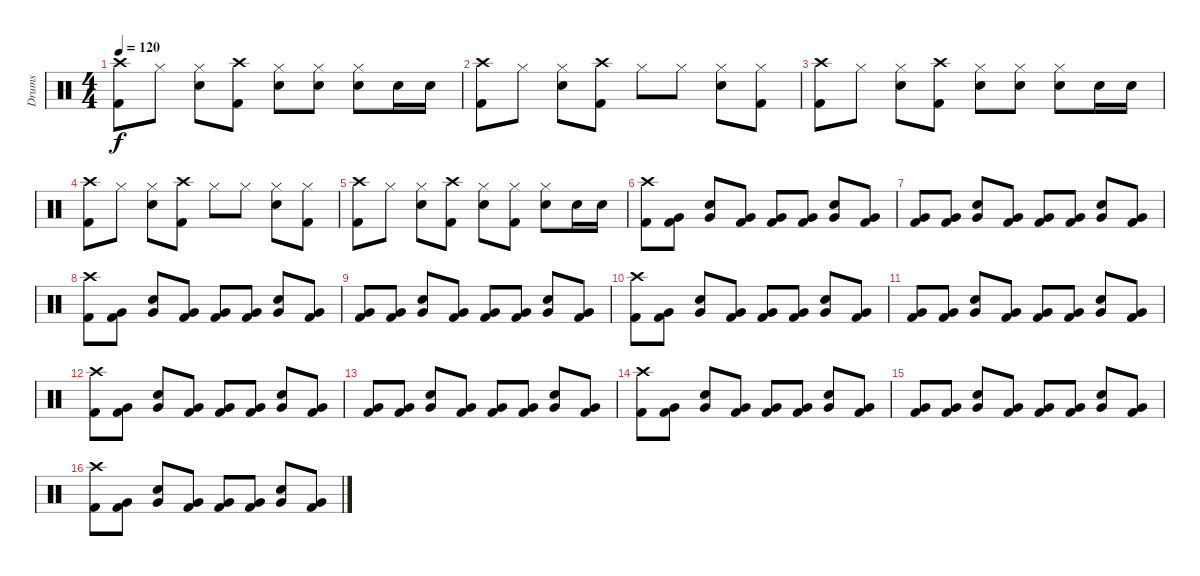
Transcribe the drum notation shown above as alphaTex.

\track ("Drums" "Drums") {instrument percussion}
\staff {score}
\articulation defaults
\ts (4 4)
\tempo 120
\clef neutral
\ks c
("Crash high (hit)" "Kick (hit) 2").8{dy f} "Hi-Hat (closed)".8 ("Hi-Hat (closed)" "Snare (hit) 2").8 ("Crash high (hit)" "Kick (hit) 2").8 ("Hi-Hat (closed)" "Snare (hit) 2").8 ("Hi-Hat (closed)" "Snare (hit) 2").8 ("Hi-Hat (closed)" "Snare (hit) 2").8 "Snare (hit) 2".16 "Snare (hit) 2".16 |
("Crash high (hit)" "Kick (hit) 2").8 "Hi-Hat (closed)".8 ("Hi-Hat (closed)" "Snare (hit) 2").8 ("Crash high (hit)" "Kick (hit) 2").8 "Hi-Hat (closed)".8 "Hi-Hat (closed)".8 ("Hi-Hat (closed)" "Snare (hit) 2").8 ("Hi-Hat (closed)" "Kick (hit) 2").8 |
("Crash high (hit)" "Kick (hit) 2").8 "Hi-Hat (closed)".8 ("Hi-Hat (closed)" "Snare (hit) 2").8 ("Crash high (hit)" "Kick (hit) 2").8 ("Hi-Hat (closed)" "Snare (hit) 2").8 ("Hi-Hat (closed)" "Snare (hit) 2").8 ("Hi-Hat (closed)" "Snare (hit) 2").8 "Snare (hit) 2".16 "Snare (hit) 2".16 |
("Crash high (hit)" "Kick (hit) 2").8 "Hi-Hat (closed)".8 ("Hi-Hat (closed)" "Snare (hit) 2").8 ("Crash high (hit)" "Kick (hit) 2").8 "Hi-Hat (closed)".8 "Hi-Hat (closed)".8 ("Hi-Hat (closed)" "Snare (hit) 2").8 ("Hi-Hat (closed)" "Kick (hit) 2").8 |
("Crash high (hit)" "Kick (hit) 2").8 "Hi-Hat (closed)".8 ("Hi-Hat (closed)" "Snare (hit) 2").8 ("Crash high (hit)" "Kick (hit) 2").8 ("Hi-Hat (closed)" "Snare (hit) 2").8 ("Hi-Hat (closed)" "Kick (hit) 2").8 ("Hi-Hat (closed)" "Snare (hit) 2").8 "Snare (hit) 2".16 "Snare (hit) 2".16 |
("Crash high (hit)" "Kick (hit) 2").8 ("Very Low Tom (hit)" "Kick (hit) 2").8 ("Very Low Tom (hit)" "Snare (hit) 2").8 ("Very Low Tom (hit)" "Kick (hit) 2").8 ("Very Low Tom (hit)" "Kick (hit) 2").8 ("Very Low Tom (hit)" "Kick (hit) 2").8 ("Very Low Tom (hit)" "Snare (hit) 2").8 ("Very Low Tom (hit)" "Kick (hit) 2").8 |
("Very Low Tom (hit)" "Kick (hit) 2").8 ("Very Low Tom (hit)" "Kick (hit) 2").8 ("Very Low Tom (hit)" "Snare (hit) 2").8 ("Very Low Tom (hit)" "Kick (hit) 2").8 ("Very Low Tom (hit)" "Kick (hit) 2").8 ("Very Low Tom (hit)" "Kick (hit) 2").8 ("Very Low Tom (hit)" "Snare (hit) 2").8 ("Very Low Tom (hit)" "Kick (hit) 2").8 |
("Crash high (hit)" "Kick (hit) 2").8 ("Very Low Tom (hit)" "Kick (hit) 2").8 ("Very Low Tom (hit)" "Snare (hit) 2").8 ("Very Low Tom (hit)" "Kick (hit) 2").8 ("Very Low Tom (hit)" "Kick (hit) 2").8 ("Very Low Tom (hit)" "Kick (hit) 2").8 ("Very Low Tom (hit)" "Snare (hit) 2").8 ("Very Low Tom (hit)" "Kick (hit) 2").8 |
("Very Low Tom (hit)" "Kick (hit) 2").8 ("Very Low Tom (hit)" "Kick (hit) 2").8 ("Very Low Tom (hit)" "Snare (hit) 2").8 ("Very Low Tom (hit)" "Kick (hit) 2").8 ("Very Low Tom (hit)" "Kick (hit) 2").8 ("Very Low Tom (hit)" "Kick (hit) 2").8 ("Very Low Tom (hit)" "Snare (hit) 2").8 ("Very Low Tom (hit)" "Kick (hit) 2").8 |
("Crash high (hit)" "Kick (hit) 2").8 ("Very Low Tom (hit)" "Kick (hit) 2").8 ("Very Low Tom (hit)" "Snare (hit) 2").8 ("Very Low Tom (hit)" "Kick (hit) 2").8 ("Very Low Tom (hit)" "Kick (hit) 2").8 ("Very Low Tom (hit)" "Kick (hit) 2").8 ("Very Low Tom (hit)" "Snare (hit) 2").8 ("Very Low Tom (hit)" "Kick (hit) 2").8 |
("Very Low Tom (hit)" "Kick (hit) 2").8 ("Very Low Tom (hit)" "Kick (hit) 2").8 ("Very Low Tom (hit)" "Snare (hit) 2").8 ("Very Low Tom (hit)" "Kick (hit) 2").8 ("Very Low Tom (hit)" "Kick (hit) 2").8 ("Very Low Tom (hit)" "Kick (hit) 2").8 ("Very Low Tom (hit)" "Snare (hit) 2").8 ("Very Low Tom (hit)" "Kick (hit) 2").8 |
("Crash high (hit)" "Kick (hit) 2").8 ("Very Low Tom (hit)" "Kick (hit) 2").8 ("Very Low Tom (hit)" "Snare (hit) 2").8 ("Very Low Tom (hit)" "Kick (hit) 2").8 ("Very Low Tom (hit)" "Kick (hit) 2").8 ("Very Low Tom (hit)" "Kick (hit) 2").8 ("Very Low Tom (hit)" "Snare (hit) 2").8 ("Very Low Tom (hit)" "Kick (hit) 2").8 |
("Very Low Tom (hit)" "Kick (hit) 2").8 ("Very Low Tom (hit)" "Kick (hit) 2").8 ("Very Low Tom (hit)" "Snare (hit) 2").8 ("Very Low Tom (hit)" "Kick (hit) 2").8 ("Very Low Tom (hit)" "Kick (hit) 2").8 ("Very Low Tom (hit)" "Kick (hit) 2").8 ("Very Low Tom (hit)" "Snare (hit) 2").8 ("Very Low Tom (hit)" "Kick (hit) 2").8 |
("Crash high (hit)" "Kick (hit) 2").8 ("Very Low Tom (hit)" "Kick (hit) 2").8 ("Very Low Tom (hit)" "Snare (hit) 2").8 ("Very Low Tom (hit)" "Kick (hit) 2").8 ("Very Low Tom (hit)" "Kick (hit) 2").8 ("Very Low Tom (hit)" "Kick (hit) 2").8 ("Very Low Tom (hit)" "Snare (hit) 2").8 ("Very Low Tom (hit)" "Kick (hit) 2").8 |
("Very Low Tom (hit)" "Kick (hit) 2").8 ("Very Low Tom (hit)" "Kick (hit) 2").8 ("Very Low Tom (hit)" "Snare (hit) 2").8 ("Very Low Tom (hit)" "Kick (hit) 2").8 ("Very Low Tom (hit)" "Kick (hit) 2").8 ("Very Low Tom (hit)" "Kick (hit) 2").8 ("Very Low Tom (hit)" "Snare (hit) 2").8 ("Very Low Tom (hit)" "Kick (hit) 2").8 |
("Crash high (hit)" "Kick (hit) 2").8 ("Very Low Tom (hit)" "Kick (hit) 2").8 ("Very Low Tom (hit)" "Snare (hit) 2").8 ("Very Low Tom (hit)" "Kick (hit) 2").8 ("Very Low Tom (hit)" "Kick (hit) 2").8 ("Very Low Tom (hit)" "Kick (hit) 2").8 ("Very Low Tom (hit)" "Snare (hit) 2").8 ("Very Low Tom (hit)" "Kick (hit) 2").8
